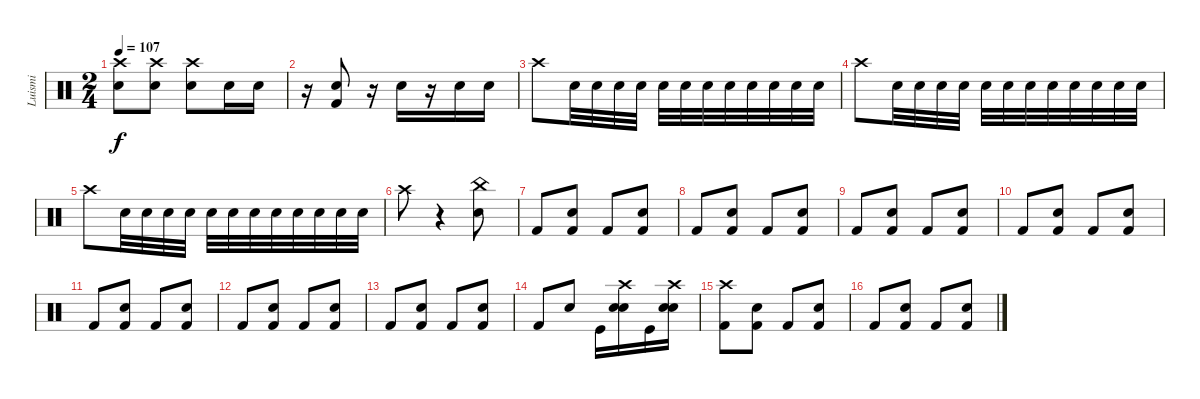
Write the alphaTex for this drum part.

\track ("Luismi" "Luismi") {instrument percussion}
\staff {score}
\articulation defaults
\ts (2 4)
\tempo 107
\clef neutral
\ks c
("Crash high (hit)" "Snare (hit) 2").8{dy f} ("Crash high (hit)" "Snare (hit) 2").8 ("Crash high (hit)" "Snare (hit) 2").8 "Electric Snare (hit)".16 "Snare (hit) 2".16 |
r.16 ("Snare (hit) 2" "Kick (hit) 2").8 r.16 "Snare (hit) 2".16 r.16 "Snare (hit) 2".16 "Snare (hit) 2".16 |
"Crash high (hit)".8 "Snare (hit) 2".32 "Snare (hit) 2".32 "Snare (hit) 2".32 "Snare (hit) 2".32 "Snare (hit) 2".32 "Snare (hit) 2".32 "Snare (hit) 2".32 "Snare (hit) 2".32 "Snare (hit) 2".32 "Snare (hit) 2".32 "Snare (hit) 2".32 "Snare (hit) 2".32 |
"Crash high (hit)".8 "Snare (hit) 2".32 "Snare (hit) 2".32 "Snare (hit) 2".32 "Snare (hit) 2".32 "Snare (hit) 2".32 "Snare (hit) 2".32 "Snare (hit) 2".32 "Snare (hit) 2".32 "Snare (hit) 2".32 "Snare (hit) 2".32 "Snare (hit) 2".32 "Snare (hit) 2".32 |
"Crash high (hit)".8 "Snare (hit) 2".32 "Snare (hit) 2".32 "Snare (hit) 2".32 "Snare (hit) 2".32 "Snare (hit) 2".32 "Snare (hit) 2".32 "Snare (hit) 2".32 "Snare (hit) 2".32 "Snare (hit) 2".32 "Snare (hit) 2".32 "Snare (hit) 2".32 "Snare (hit) 2".32 |
"Crash high (hit)".8 r.4 ("China (hit)" "Snare (hit) 2").8 |
"Kick (hit) 2".8 ("Snare (hit) 2" "Kick (hit) 2").8 "Kick (hit) 2".8 ("Snare (hit) 2" "Kick (hit) 2").8 |
"Kick (hit) 2".8 ("Snare (hit) 2" "Kick (hit) 2").8 "Kick (hit) 2".8 ("Snare (hit) 2" "Kick (hit) 2").8 |
"Kick (hit) 2".8 ("Snare (hit) 2" "Kick (hit) 2").8 "Kick (hit) 2".8 ("Snare (hit) 2" "Kick (hit) 2").8 |
"Kick (hit) 2".8 ("Snare (hit) 2" "Kick (hit) 2").8 "Kick (hit) 2".8 ("Snare (hit) 2" "Kick (hit) 2").8 |
"Kick (hit) 2".8 ("Snare (hit) 2" "Kick (hit) 2").8 "Kick (hit) 2".8 ("Snare (hit) 2" "Kick (hit) 2").8 |
"Kick (hit) 2".8 ("Snare (hit) 2" "Kick (hit) 2").8 "Kick (hit) 2".8 ("Snare (hit) 2" "Kick (hit) 2").8 |
"Kick (hit) 2".8 ("Snare (hit) 2" "Kick (hit) 2").8 "Kick (hit) 2".8 ("Snare (hit) 2" "Kick (hit) 2").8 |
"Kick (hit) 2".8 "Snare (hit) 2".8 "Kick (hit)".16 ("Crash high (hit)" "Snare (hit) 2" "Electric Snare (hit)").16 "Kick (hit)".16 ("Crash high (hit)" "Snare (hit) 2" "Electric Snare (hit)").16 |
("Crash high (hit)" "Kick (hit) 2").8 ("Snare (hit) 2" "Kick (hit) 2").8 "Kick (hit) 2".8 ("Snare (hit) 2" "Kick (hit) 2").8 |
"Kick (hit) 2".8 ("Snare (hit) 2" "Kick (hit) 2").8 "Kick (hit) 2".8 ("Snare (hit) 2" "Kick (hit) 2").8
